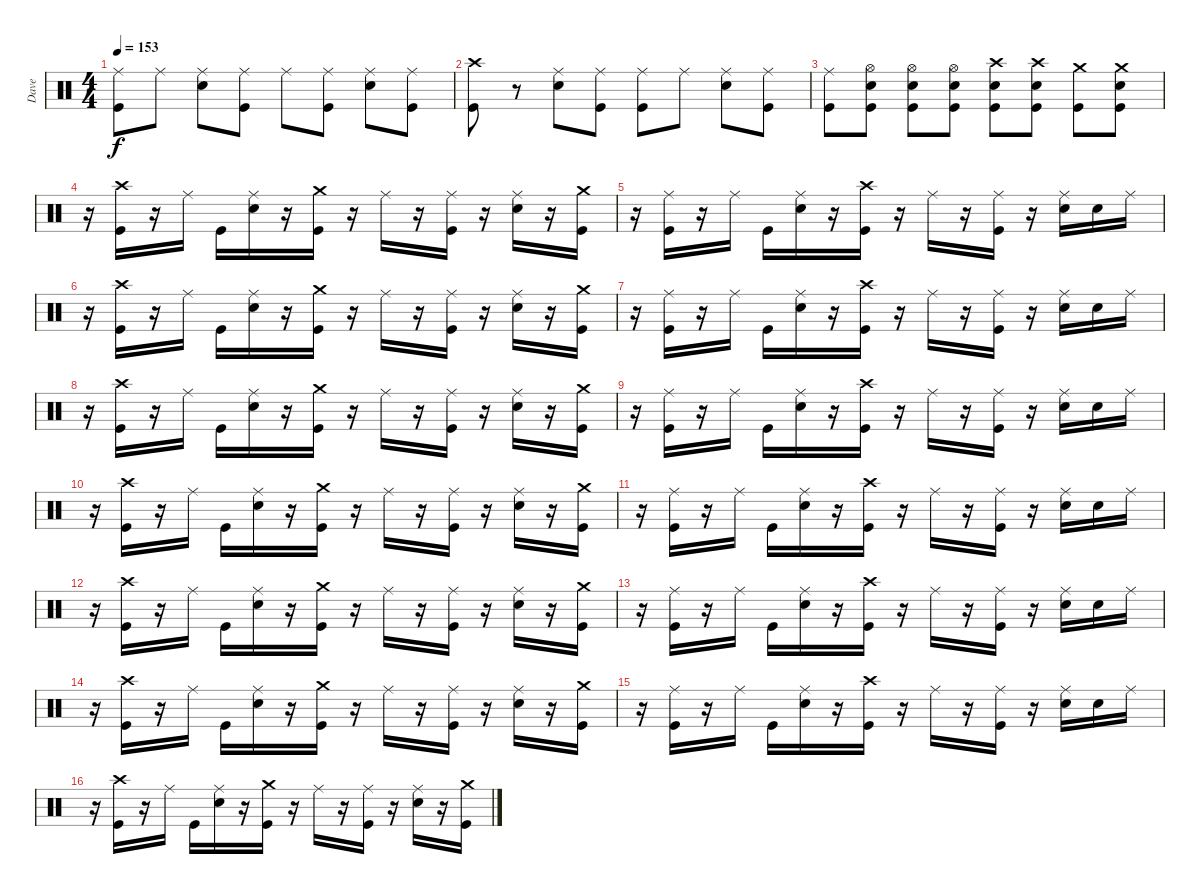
\track ("Dave" "Dave") {solo instrument percussion}
\staff {score}
\articulation defaults
\ts (4 4)
\tempo 153
\clef neutral
\ks c
("Ride (middle)" "Kick (hit)").8{dy f} "Ride (middle)".8 ("Ride (middle)" "Snare (hit) 2").8 ("Ride (middle)" "Kick (hit)").8 "Ride (middle)".8 ("Ride (middle)" "Kick (hit)").8 ("Ride (middle)" "Snare (hit) 2").8 ("Ride (middle)" "Kick (hit)").8 |
("Crash high (hit)" "Kick (hit)").8 r.8 ("Ride (middle)" "Snare (hit) 2").8 ("Ride (middle)" "Kick (hit)").8 ("Ride (middle)" "Kick (hit)").8 "Ride (middle)".8 ("Ride (middle)" "Snare (hit) 2").8 ("Ride (middle)" "Kick (hit)").8 |
("Ride (middle)" "Kick (hit)").8 ("Hi-Hat (open)" "Snare (hit) 2" "Kick (hit)").8 ("Hi-Hat (open)" "Snare (hit) 2" "Kick (hit)").8 ("Hi-Hat (open)" "Snare (hit) 2" "Kick (hit)").8 ("Crash high (hit)" "Snare (hit) 2" "Kick (hit)").8 ("Crash high (hit)" "Snare (hit) 2" "Kick (hit)").8 ("Crash medium (hit)" "Kick (hit)").8 ("Crash medium (hit)" "Snare (hit) 2" "Kick (hit)").8 |
r.16 ("Crash high (hit)" "Kick (hit)").16 r.16 "Ride (middle)".16 "Kick (hit)".16 ("Ride (middle)" "Snare (hit) 2").16 r.16 ("Crash medium (hit)" "Kick (hit)").16 r.16 "Ride (middle)".16 r.16 ("Ride (middle)" "Kick (hit)").16 r.16 ("Ride (middle)" "Snare (hit) 2").16 r.16 ("Crash medium (hit)" "Kick (hit)").16 |
r.16 ("Ride (middle)" "Kick (hit)").16 r.16 "Ride (middle)".16 "Kick (hit)".16 ("Ride (middle)" "Snare (hit) 2").16 r.16 ("Crash high (hit)" "Kick (hit)").16 r.16 "Ride (middle)".16 r.16 ("Ride (middle)" "Kick (hit)").16 r.16 ("Ride (middle)" "Snare (hit) 2").16 "Snare (hit) 2".16 "Ride (middle)".16 |
r.16 ("Crash high (hit)" "Kick (hit)").16 r.16 "Ride (middle)".16 "Kick (hit)".16 ("Ride (middle)" "Snare (hit) 2").16 r.16 ("Crash medium (hit)" "Kick (hit)").16 r.16 "Ride (middle)".16 r.16 ("Ride (middle)" "Kick (hit)").16 r.16 ("Ride (middle)" "Snare (hit) 2").16 r.16 ("Crash medium (hit)" "Kick (hit)").16 |
r.16 ("Ride (middle)" "Kick (hit)").16 r.16 "Ride (middle)".16 "Kick (hit)".16 ("Ride (middle)" "Snare (hit) 2").16 r.16 ("Crash high (hit)" "Kick (hit)").16 r.16 "Ride (middle)".16 r.16 ("Ride (middle)" "Kick (hit)").16 r.16 ("Ride (middle)" "Snare (hit) 2").16 "Snare (hit) 2".16 "Ride (middle)".16 |
r.16 ("Crash high (hit)" "Kick (hit)").16 r.16 "Ride (middle)".16 "Kick (hit)".16 ("Ride (middle)" "Snare (hit) 2").16 r.16 ("Crash medium (hit)" "Kick (hit)").16 r.16 "Ride (middle)".16 r.16 ("Ride (middle)" "Kick (hit)").16 r.16 ("Ride (middle)" "Snare (hit) 2").16 r.16 ("Crash medium (hit)" "Kick (hit)").16 |
r.16 ("Ride (middle)" "Kick (hit)").16 r.16 "Ride (middle)".16 "Kick (hit)".16 ("Ride (middle)" "Snare (hit) 2").16 r.16 ("Crash high (hit)" "Kick (hit)").16 r.16 "Ride (middle)".16 r.16 ("Ride (middle)" "Kick (hit)").16 r.16 ("Ride (middle)" "Snare (hit) 2").16 "Snare (hit) 2".16 "Ride (middle)".16 |
r.16 ("Crash high (hit)" "Kick (hit)").16 r.16 "Ride (middle)".16 "Kick (hit)".16 ("Ride (middle)" "Snare (hit) 2").16 r.16 ("Crash medium (hit)" "Kick (hit)").16 r.16 "Ride (middle)".16 r.16 ("Ride (middle)" "Kick (hit)").16 r.16 ("Ride (middle)" "Snare (hit) 2").16 r.16 ("Crash medium (hit)" "Kick (hit)").16 |
r.16 ("Ride (middle)" "Kick (hit)").16 r.16 "Ride (middle)".16 "Kick (hit)".16 ("Ride (middle)" "Snare (hit) 2").16 r.16 ("Crash high (hit)" "Kick (hit)").16 r.16 "Ride (middle)".16 r.16 ("Ride (middle)" "Kick (hit)").16 r.16 ("Ride (middle)" "Snare (hit) 2").16 "Snare (hit) 2".16 "Ride (middle)".16 |
r.16 ("Crash high (hit)" "Kick (hit)").16 r.16 "Ride (middle)".16 "Kick (hit)".16 ("Ride (middle)" "Snare (hit) 2").16 r.16 ("Crash medium (hit)" "Kick (hit)").16 r.16 "Ride (middle)".16 r.16 ("Ride (middle)" "Kick (hit)").16 r.16 ("Ride (middle)" "Snare (hit) 2").16 r.16 ("Crash medium (hit)" "Kick (hit)").16 |
r.16 ("Ride (middle)" "Kick (hit)").16 r.16 "Ride (middle)".16 "Kick (hit)".16 ("Ride (middle)" "Snare (hit) 2").16 r.16 ("Crash high (hit)" "Kick (hit)").16 r.16 "Ride (middle)".16 r.16 ("Ride (middle)" "Kick (hit)").16 r.16 ("Ride (middle)" "Snare (hit) 2").16 "Snare (hit) 2".16 "Ride (middle)".16 |
r.16 ("Crash high (hit)" "Kick (hit)").16 r.16 "Ride (middle)".16 "Kick (hit)".16 ("Ride (middle)" "Snare (hit) 2").16 r.16 ("Crash medium (hit)" "Kick (hit)").16 r.16 "Ride (middle)".16 r.16 ("Ride (middle)" "Kick (hit)").16 r.16 ("Ride (middle)" "Snare (hit) 2").16 r.16 ("Crash medium (hit)" "Kick (hit)").16 |
r.16 ("Ride (middle)" "Kick (hit)").16 r.16 "Ride (middle)".16 "Kick (hit)".16 ("Ride (middle)" "Snare (hit) 2").16 r.16 ("Crash high (hit)" "Kick (hit)").16 r.16 "Ride (middle)".16 r.16 ("Ride (middle)" "Kick (hit)").16 r.16 ("Ride (middle)" "Snare (hit) 2").16 "Snare (hit) 2".16 "Ride (middle)".16 |
r.16 ("Crash high (hit)" "Kick (hit)").16 r.16 "Ride (middle)".16 "Kick (hit)".16 ("Ride (middle)" "Snare (hit) 2").16 r.16 ("Crash medium (hit)" "Kick (hit)").16 r.16 "Ride (middle)".16 r.16 ("Ride (middle)" "Kick (hit)").16 r.16 ("Ride (middle)" "Snare (hit) 2").16 r.16 ("Crash medium (hit)" "Kick (hit)").16
